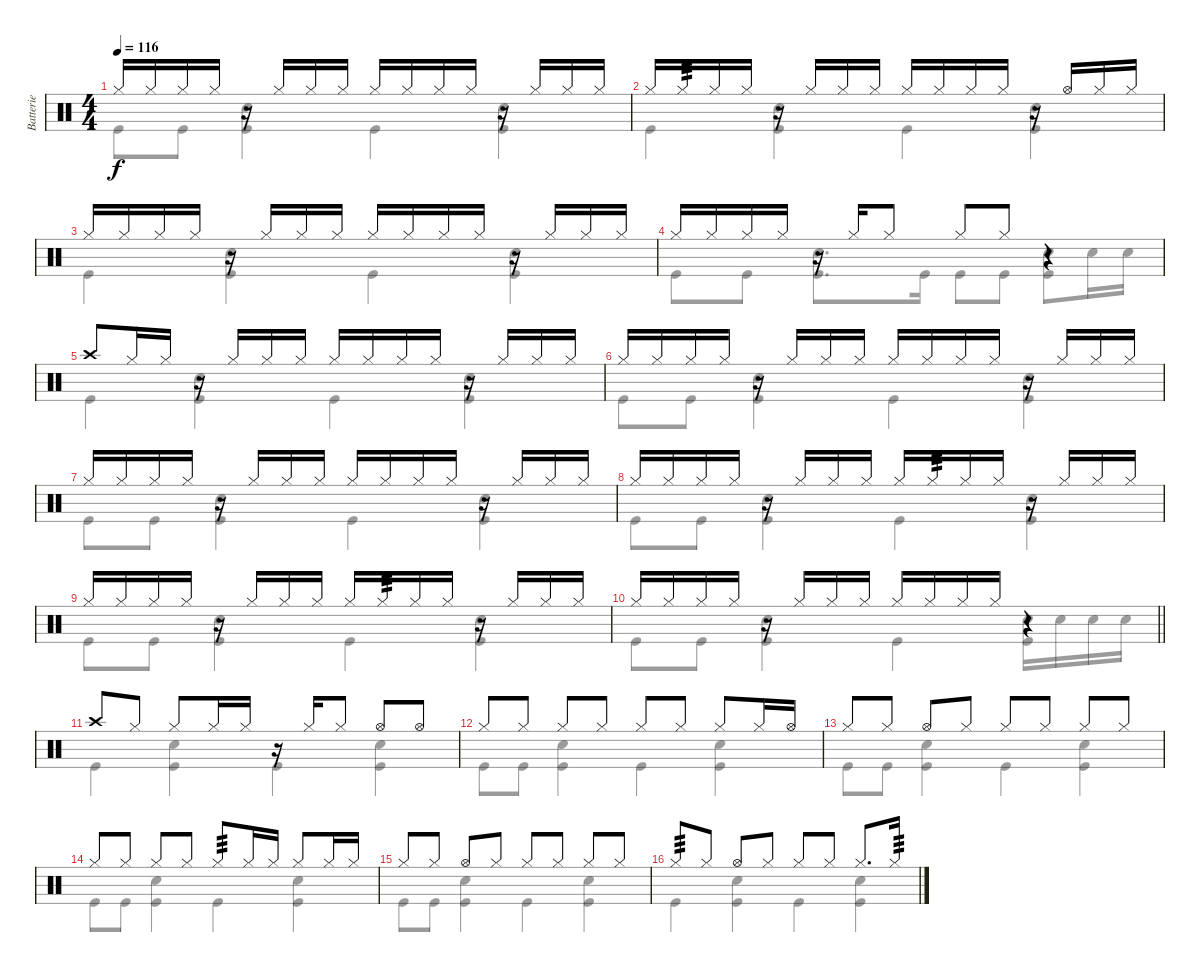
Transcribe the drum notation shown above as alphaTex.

\track ("Batterie" "Batterie") {instrument percussion}
\staff {score}
\articulation defaults
\voice
\ts (4 4)
\tempo 116
\clef neutral
\ks c "Hi-Hat (closed)".16{dy f} "Hi-Hat (closed)".16 "Hi-Hat (closed)".16 "Hi-Hat (closed)".16
r.16 "Hi-Hat (closed)".16 "Hi-Hat (closed)".16 "Hi-Hat (closed)".16 "Hi-Hat (closed)".16 "Hi-Hat (closed)".16 "Hi-Hat (closed)".16 "Hi-Hat (closed)".16 r.16 "Hi-Hat (closed)".16 "Hi-Hat (closed)".16 "Hi-Hat (closed)".16 |
"Hi-Hat (closed)".16 "Hi-Hat (closed)".16{tp 3} "Hi-Hat (closed)".16 "Hi-Hat (closed)".16 r.16 "Hi-Hat (closed)".16 "Hi-Hat (closed)".16 "Hi-Hat (closed)".16 "Hi-Hat (closed)".16 "Hi-Hat (closed)".16 "Hi-Hat (closed)".16 "Hi-Hat (closed)".16 r.16 "Hi-Hat (open)".16 "Hi-Hat (closed)".16 "Hi-Hat (closed)".16 |
"Hi-Hat (closed)".16 "Hi-Hat (closed)".16 "Hi-Hat (closed)".16 "Hi-Hat (closed)".16 r.16 "Hi-Hat (closed)".16 "Hi-Hat (closed)".16 "Hi-Hat (closed)".16 "Hi-Hat (closed)".16 "Hi-Hat (closed)".16 "Hi-Hat (closed)".16 "Hi-Hat (closed)".16 r.16 "Hi-Hat (closed)".16 "Hi-Hat (closed)".16 "Hi-Hat (closed)".16 |
"Hi-Hat (closed)".16 "Hi-Hat (closed)".16 "Hi-Hat (closed)".16 "Hi-Hat (closed)".16 r.16 "Hi-Hat (closed)".16 "Hi-Hat (closed)".8 "Hi-Hat (closed)".8 "Hi-Hat (closed)".8 r.4 |
"Crash high (hit)".8 "Hi-Hat (closed)".16 "Hi-Hat (closed)".16 r.16 "Hi-Hat (closed)".16 "Hi-Hat (closed)".16 "Hi-Hat (closed)".16 "Hi-Hat (closed)".16 "Hi-Hat (closed)".16 "Hi-Hat (closed)".16 "Hi-Hat (closed)".16 r.16 "Hi-Hat (closed)".16 "Hi-Hat (closed)".16 "Hi-Hat (closed)".16 |
"Hi-Hat (closed)".16 "Hi-Hat (closed)".16 "Hi-Hat (closed)".16 "Hi-Hat (closed)".16 r.16 "Hi-Hat (closed)".16 "Hi-Hat (closed)".16 "Hi-Hat (closed)".16 "Hi-Hat (closed)".16 "Hi-Hat (closed)".16 "Hi-Hat (closed)".16 "Hi-Hat (closed)".16 r.16 "Hi-Hat (closed)".16 "Hi-Hat (closed)".16 "Hi-Hat (closed)".16 |
"Hi-Hat (closed)".16 "Hi-Hat (closed)".16 "Hi-Hat (closed)".16 "Hi-Hat (closed)".16 r.16 "Hi-Hat (closed)".16 "Hi-Hat (closed)".16 "Hi-Hat (closed)".16 "Hi-Hat (closed)".16 "Hi-Hat (closed)".16 "Hi-Hat (closed)".16 "Hi-Hat (closed)".16 r.16 "Hi-Hat (closed)".16 "Hi-Hat (closed)".16 "Hi-Hat (closed)".16 |
"Hi-Hat (closed)".16 "Hi-Hat (closed)".16 "Hi-Hat (closed)".16 "Hi-Hat (closed)".16 r.16 "Hi-Hat (closed)".16 "Hi-Hat (closed)".16 "Hi-Hat (closed)".16 "Hi-Hat (closed)".16 "Hi-Hat (closed)".16{tp 3} "Hi-Hat (closed)".16 "Hi-Hat (closed)".16 r.16 "Hi-Hat (closed)".16 "Hi-Hat (closed)".16 "Hi-Hat (closed)".16 |
"Hi-Hat (closed)".16 "Hi-Hat (closed)".16 "Hi-Hat (closed)".16 "Hi-Hat (closed)".16 r.16 "Hi-Hat (closed)".16 "Hi-Hat (closed)".16 "Hi-Hat (closed)".16 "Hi-Hat (closed)".16 "Hi-Hat (closed)".16{tp 3} "Hi-Hat (closed)".16 "Hi-Hat (closed)".16 r.16 "Hi-Hat (closed)".16 "Hi-Hat (closed)".16 "Hi-Hat (closed)".16 |
\barLineRight lightlight "Hi-Hat (closed)".16 "Hi-Hat (closed)".16 "Hi-Hat (closed)".16 "Hi-Hat (closed)".16
r.16 "Hi-Hat (closed)".16 "Hi-Hat (closed)".16 "Hi-Hat (closed)".16 "Hi-Hat (closed)".16 "Hi-Hat (closed)".16 "Hi-Hat (closed)".16 "Hi-Hat (closed)".16 r.4 |
"Crash high (hit)".8 "Hi-Hat (closed)".8 "Hi-Hat (closed)".8 "Hi-Hat (closed)".16 "Hi-Hat (closed)".16 r.16 "Hi-Hat (closed)".16 "Hi-Hat (closed)".8 "Hi-Hat (open)".8 "Hi-Hat (open)".8 |
"Hi-Hat (closed)".8 "Hi-Hat (closed)".8 "Hi-Hat (closed)".8 "Hi-Hat (closed)".8 "Hi-Hat (closed)".8 "Hi-Hat (closed)".8 "Hi-Hat (closed)".8 "Hi-Hat (closed)".16 "Hi-Hat (open)".16 |
"Hi-Hat (closed)".8 "Hi-Hat (closed)".8 "Hi-Hat (open)".8 "Hi-Hat (closed)".8 "Hi-Hat (closed)".8 "Hi-Hat (closed)".8 "Hi-Hat (closed)".8 "Hi-Hat (closed)".8 |
"Hi-Hat (closed)".8 "Hi-Hat (closed)".8 "Hi-Hat (closed)".8 "Hi-Hat (closed)".8 "Hi-Hat (closed)".8{tp 3} "Hi-Hat (closed)".16 "Hi-Hat (closed)".16 "Hi-Hat (closed)".8 "Hi-Hat (closed)".16 "Hi-Hat (closed)".16 |
"Hi-Hat (closed)".8 "Hi-Hat (closed)".8 "Hi-Hat (open)".8 "Hi-Hat (closed)".8 "Hi-Hat (closed)".8 "Hi-Hat (closed)".8 "Hi-Hat (closed)".8 "Hi-Hat (closed)".8 |
"Hi-Hat (closed)".8{tp 3} "Hi-Hat (closed)".8 "Hi-Hat (open)".8 "Hi-Hat (closed)".8 "Hi-Hat (closed)".8 "Hi-Hat (closed)".8 "Hi-Hat (closed)".8{d} "Hi-Hat (closed)".16{tp 3}
\voice
\clef neutral
\ottava regular
\simile none
\ks c "Kick (hit)".8{dy f} "Kick (hit)".8
("Snare (hit) 2" "Kick (hit)").4 "Kick (hit)".4 ("Snare (hit) 2" "Kick (hit)").4 |
"Kick (hit)".4 ("Snare (hit) 2" "Kick (hit)").4 "Kick (hit)".4 ("Snare (hit) 2" "Kick (hit)").4 |
"Kick (hit)".4 ("Snare (hit) 2" "Kick (hit)").4 "Kick (hit)".4 ("Snare (hit) 2" "Kick (hit)").4 |
"Kick (hit)".8 "Kick (hit)".8 ("Snare (hit) 2" "Kick (hit)").8{d} "Kick (hit)".16 "Kick (hit)".8 "Kick (hit)".8 ("Snare (hit) 2" "Kick (hit)").8 "Snare (hit) 2".16 "Snare (hit) 2".16 |
"Kick (hit)".4 ("Snare (hit) 2" "Kick (hit)").4 "Kick (hit)".4 ("Snare (hit) 2" "Kick (hit)").4 |
"Kick (hit)".8 "Kick (hit)".8 ("Snare (hit) 2" "Kick (hit)").4 "Kick (hit)".4 ("Snare (hit) 2" "Kick (hit)").4 |
"Kick (hit)".8 "Kick (hit)".8 ("Snare (hit) 2" "Kick (hit)").4 "Kick (hit)".4 ("Snare (hit) 2" "Kick (hit)").4 |
"Kick (hit)".8 "Kick (hit)".8 ("Snare (hit) 2" "Kick (hit)").4 "Kick (hit)".4 ("Snare (hit) 2" "Kick (hit)").4 |
"Kick (hit)".8 "Kick (hit)".8 ("Snare (hit) 2" "Kick (hit)").4 "Kick (hit)".4 ("Snare (hit) 2" "Kick (hit)").4 |
\barLineRight lightlight "Kick (hit)".8 "Kick (hit)".8
("Snare (hit) 2" "Kick (hit)").4 "Kick (hit)".4 ("Snare (hit) 2" "Kick (hit)").16 "Snare (hit) 2".16 "Snare (hit) 2".16 "Snare (hit) 2".16 |
"Kick (hit)".4 ("Snare (hit) 2" "Kick (hit)").4 "Kick (hit)".4 ("Snare (hit) 2" "Kick (hit)").4 |
"Kick (hit)".8 "Kick (hit)".8 ("Snare (hit) 2" "Kick (hit)").4 "Kick (hit)".4 ("Snare (hit) 2" "Kick (hit)").4 |
"Kick (hit)".8 "Kick (hit)".8 ("Snare (hit) 2" "Kick (hit)").4 "Kick (hit)".4 ("Snare (hit) 2" "Kick (hit)").4 |
"Kick (hit)".8 "Kick (hit)".8 ("Snare (hit) 2" "Kick (hit)").4 "Kick (hit)".4 ("Snare (hit) 2" "Kick (hit)").4 |
"Kick (hit)".8 "Kick (hit)".8 ("Snare (hit) 2" "Kick (hit)").4 "Kick (hit)".4 ("Snare (hit) 2" "Kick (hit)").4 |
"Kick (hit)".4 ("Snare (hit) 2" "Kick (hit)").4 "Kick (hit)".4 ("Snare (hit) 2" "Kick (hit)").4
